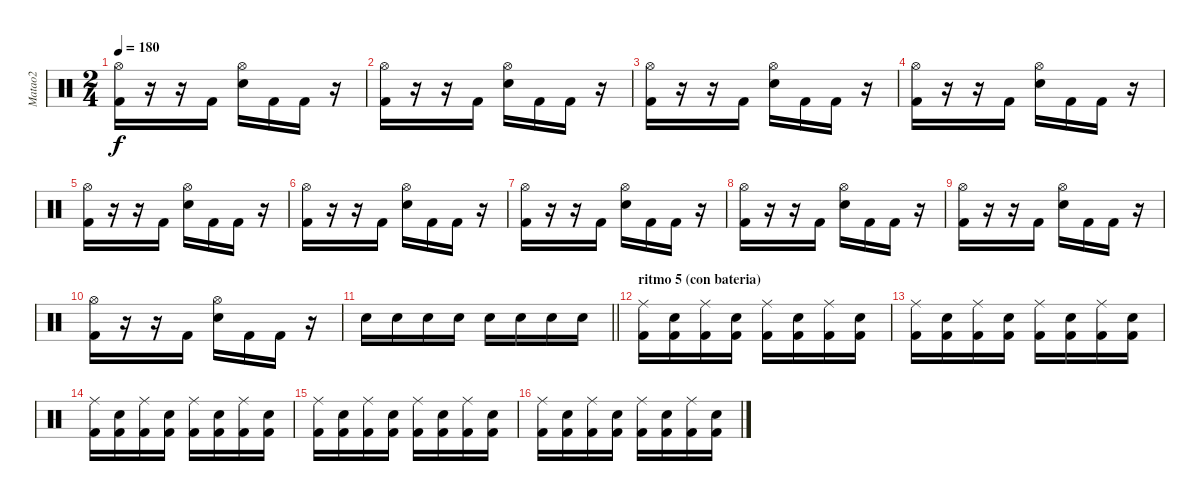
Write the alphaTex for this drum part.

\track ("Matao2" "Matao2") {instrument percussion}
\staff {score}
\articulation defaults
\ts (2 4)
\tempo 180
\clef neutral
\ks c
("Kick (hit) 2" "Hi-Hat (open)").16{dy f} r.16 r.16 "Kick (hit) 2".16 ("Electric Snare (hit)" "Hi-Hat (open)").16 "Kick (hit) 2".16 "Kick (hit) 2".16 r.16 |
("Kick (hit) 2" "Hi-Hat (open)").16 r.16 r.16 "Kick (hit) 2".16 ("Electric Snare (hit)" "Hi-Hat (open)").16 "Kick (hit) 2".16 "Kick (hit) 2".16 r.16 |
("Kick (hit) 2" "Hi-Hat (open)").16 r.16 r.16 "Kick (hit) 2".16 ("Electric Snare (hit)" "Hi-Hat (open)").16 "Kick (hit) 2".16 "Kick (hit) 2".16 r.16 |
("Kick (hit) 2" "Hi-Hat (open)").16 r.16 r.16 "Kick (hit) 2".16 ("Electric Snare (hit)" "Hi-Hat (open)").16 "Kick (hit) 2".16 "Kick (hit) 2".16 r.16 |
("Kick (hit) 2" "Hi-Hat (open)").16 r.16 r.16 "Kick (hit) 2".16 ("Electric Snare (hit)" "Hi-Hat (open)").16 "Kick (hit) 2".16 "Kick (hit) 2".16 r.16 |
("Kick (hit) 2" "Hi-Hat (open)").16 r.16 r.16 "Kick (hit) 2".16 ("Electric Snare (hit)" "Hi-Hat (open)").16 "Kick (hit) 2".16 "Kick (hit) 2".16 r.16 |
("Kick (hit) 2" "Hi-Hat (open)").16 r.16 r.16 "Kick (hit) 2".16 ("Electric Snare (hit)" "Hi-Hat (open)").16 "Kick (hit) 2".16 "Kick (hit) 2".16 r.16 |
("Kick (hit) 2" "Hi-Hat (open)").16 r.16 r.16 "Kick (hit) 2".16 ("Electric Snare (hit)" "Hi-Hat (open)").16 "Kick (hit) 2".16 "Kick (hit) 2".16 r.16 |
("Kick (hit) 2" "Hi-Hat (open)").16 r.16 r.16 "Kick (hit) 2".16 ("Electric Snare (hit)" "Hi-Hat (open)").16 "Kick (hit) 2".16 "Kick (hit) 2".16 r.16 |
("Kick (hit) 2" "Hi-Hat (open)").16 r.16 r.16 "Kick (hit) 2".16 ("Electric Snare (hit)" "Hi-Hat (open)").16 "Kick (hit) 2".16 "Kick (hit) 2".16 r.16 |
\barLineRight lightlight "Electric Snare (hit)".16 "Electric Snare (hit)".16 "Electric Snare (hit)".16 "Electric Snare (hit)".16 "Electric Snare (hit)".16 "Electric Snare (hit)".16 "Electric Snare (hit)".16 "Electric Snare (hit)".16
|
\section ("" "ritmo 5 (con bateria)")
("Kick (hit) 2" "Ride (middle)").16 ("Kick (hit) 2" "Electric Snare (hit)").16 ("Kick (hit) 2" "Ride (middle)").16 ("Kick (hit) 2" "Electric Snare (hit)").16 ("Kick (hit) 2" "Ride (middle)").16 ("Kick (hit) 2" "Electric Snare (hit)").16 ("Kick (hit) 2" "Ride (middle)").16 ("Kick (hit) 2" "Electric Snare (hit)").16 |
("Kick (hit) 2" "Ride (middle)").16 ("Kick (hit) 2" "Electric Snare (hit)").16 ("Kick (hit) 2" "Ride (middle)").16 ("Kick (hit) 2" "Electric Snare (hit)").16 ("Kick (hit) 2" "Ride (middle)").16 ("Kick (hit) 2" "Electric Snare (hit)").16 ("Kick (hit) 2" "Ride (middle)").16 ("Kick (hit) 2" "Electric Snare (hit)").16 |
("Kick (hit) 2" "Ride (middle)").16 ("Kick (hit) 2" "Electric Snare (hit)").16 ("Kick (hit) 2" "Ride (middle)").16 ("Kick (hit) 2" "Electric Snare (hit)").16 ("Kick (hit) 2" "Ride (middle)").16 ("Kick (hit) 2" "Electric Snare (hit)").16 ("Kick (hit) 2" "Ride (middle)").16 ("Kick (hit) 2" "Electric Snare (hit)").16 |
("Kick (hit) 2" "Ride (middle)").16 ("Kick (hit) 2" "Electric Snare (hit)").16 ("Kick (hit) 2" "Ride (middle)").16 ("Kick (hit) 2" "Electric Snare (hit)").16 ("Kick (hit) 2" "Ride (middle)").16 ("Kick (hit) 2" "Electric Snare (hit)").16 ("Kick (hit) 2" "Ride (middle)").16 ("Kick (hit) 2" "Electric Snare (hit)").16 |
("Kick (hit) 2" "Ride (middle)").16 ("Kick (hit) 2" "Electric Snare (hit)").16 ("Kick (hit) 2" "Ride (middle)").16 ("Kick (hit) 2" "Electric Snare (hit)").16 ("Kick (hit) 2" "Ride (middle)").16 ("Kick (hit) 2" "Electric Snare (hit)").16 ("Kick (hit) 2" "Ride (middle)").16 ("Kick (hit) 2" "Electric Snare (hit)").16
